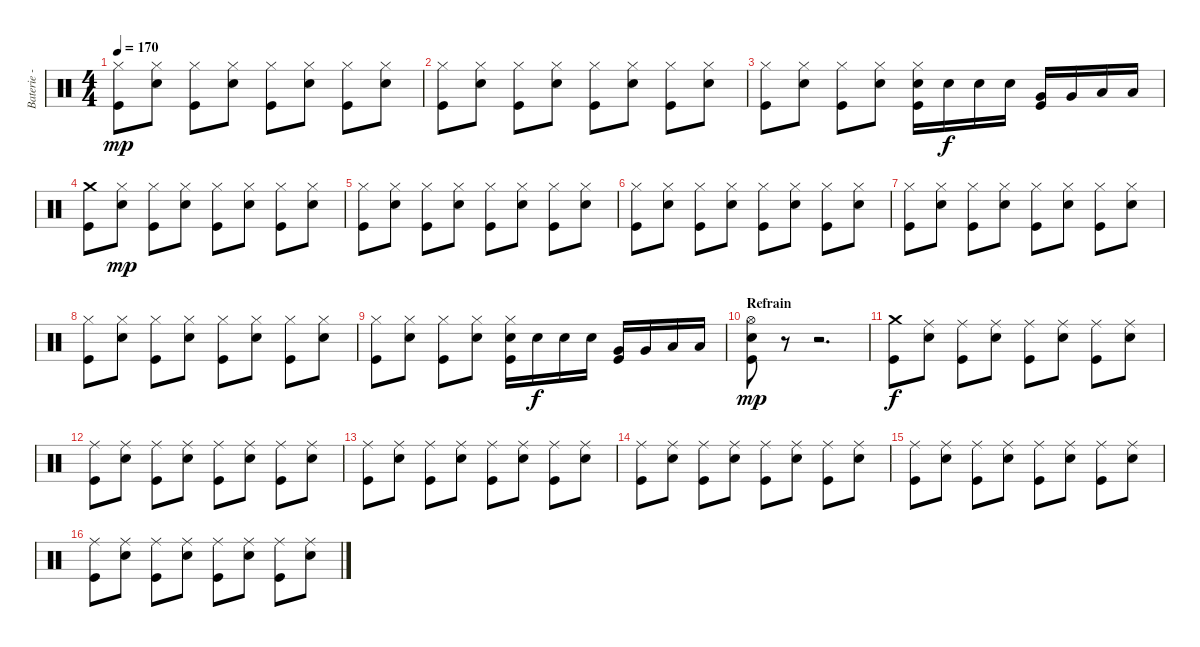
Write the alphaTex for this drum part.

\track ("Baterie - Guillaume" "Baterie - ") {instrument percussion}
\staff {score}
\articulation defaults
\ts (4 4)
\tempo 170
\clef neutral
\ks c
("Hi-Hat (closed)" "Kick (hit)").8{dy mp} ("Hi-Hat (closed)" "Electric Snare (hit)").8 ("Hi-Hat (closed)" "Kick (hit)").8 ("Hi-Hat (closed)" "Electric Snare (hit)").8 ("Hi-Hat (closed)" "Kick (hit)").8 ("Hi-Hat (closed)" "Electric Snare (hit)").8 ("Hi-Hat (closed)" "Kick (hit)").8 ("Hi-Hat (closed)" "Electric Snare (hit)").8 |
("Hi-Hat (closed)" "Kick (hit)").8 ("Hi-Hat (closed)" "Electric Snare (hit)").8 ("Hi-Hat (closed)" "Kick (hit)").8 ("Hi-Hat (closed)" "Electric Snare (hit)").8 ("Hi-Hat (closed)" "Kick (hit)").8 ("Hi-Hat (closed)" "Electric Snare (hit)").8 ("Hi-Hat (closed)" "Kick (hit)").8 ("Hi-Hat (closed)" "Electric Snare (hit)").8 |
("Hi-Hat (closed)" "Kick (hit)").8 ("Hi-Hat (closed)" "Electric Snare (hit)").8 ("Hi-Hat (closed)" "Kick (hit)").8 ("Hi-Hat (closed)" "Electric Snare (hit)").8 ("Hi-Hat (closed)" "Electric Snare (hit)" "Kick (hit)").16 "Electric Snare (hit)".16{dy f} "Electric Snare (hit)".16 "Electric Snare (hit)".16 ("Very Low Tom (hit)" "Kick (hit)").16 "Very Low Tom (hit)".16 "Low Tom (hit)".16 "Low Tom (hit)".16 |
("Crash medium (hit)" "Kick (hit)").8 ("Hi-Hat (closed)" "Electric Snare (hit)").8{dy mp} ("Hi-Hat (closed)" "Kick (hit)").8 ("Hi-Hat (closed)" "Electric Snare (hit)").8 ("Hi-Hat (closed)" "Kick (hit)").8 ("Hi-Hat (closed)" "Electric Snare (hit)").8 ("Hi-Hat (closed)" "Kick (hit)").8 ("Hi-Hat (closed)" "Electric Snare (hit)").8 |
("Hi-Hat (closed)" "Kick (hit)").8 ("Hi-Hat (closed)" "Electric Snare (hit)").8 ("Hi-Hat (closed)" "Kick (hit)").8 ("Hi-Hat (closed)" "Electric Snare (hit)").8 ("Hi-Hat (closed)" "Kick (hit)").8 ("Hi-Hat (closed)" "Electric Snare (hit)").8 ("Hi-Hat (closed)" "Kick (hit)").8 ("Hi-Hat (closed)" "Electric Snare (hit)").8 |
("Hi-Hat (closed)" "Kick (hit)").8 ("Hi-Hat (closed)" "Electric Snare (hit)").8 ("Hi-Hat (closed)" "Kick (hit)").8 ("Hi-Hat (closed)" "Electric Snare (hit)").8 ("Hi-Hat (closed)" "Kick (hit)").8 ("Hi-Hat (closed)" "Electric Snare (hit)").8 ("Hi-Hat (closed)" "Kick (hit)").8 ("Hi-Hat (closed)" "Electric Snare (hit)").8 |
("Hi-Hat (closed)" "Kick (hit)").8 ("Hi-Hat (closed)" "Electric Snare (hit)").8 ("Hi-Hat (closed)" "Kick (hit)").8 ("Hi-Hat (closed)" "Electric Snare (hit)").8 ("Hi-Hat (closed)" "Kick (hit)").8 ("Hi-Hat (closed)" "Electric Snare (hit)").8 ("Hi-Hat (closed)" "Kick (hit)").8 ("Hi-Hat (closed)" "Electric Snare (hit)").8 |
("Hi-Hat (closed)" "Kick (hit)").8 ("Hi-Hat (closed)" "Electric Snare (hit)").8 ("Hi-Hat (closed)" "Kick (hit)").8 ("Hi-Hat (closed)" "Electric Snare (hit)").8 ("Hi-Hat (closed)" "Kick (hit)").8 ("Hi-Hat (closed)" "Electric Snare (hit)").8 ("Hi-Hat (closed)" "Kick (hit)").8 ("Hi-Hat (closed)" "Electric Snare (hit)").8 |
("Hi-Hat (closed)" "Kick (hit)").8 ("Hi-Hat (closed)" "Electric Snare (hit)").8 ("Hi-Hat (closed)" "Kick (hit)").8 ("Hi-Hat (closed)" "Electric Snare (hit)").8 ("Hi-Hat (closed)" "Electric Snare (hit)" "Kick (hit)").16 "Electric Snare (hit)".16{dy f} "Electric Snare (hit)".16 "Electric Snare (hit)".16 ("Very Low Tom (hit)" "Kick (hit)").16 "Very Low Tom (hit)".16 "Low Tom (hit)".16 "Low Tom (hit)".16 |
\section ("" "Refrain")
("Hi-Hat (open)" "Electric Snare (hit)" "Kick (hit)").8{dy mp} r.8 r.2{d} |
("Crash medium (hit)" "Kick (hit)").8{dy f} ("Ride (middle)" "Electric Snare (hit)").8 ("Ride (middle)" "Kick (hit)").8 ("Ride (middle)" "Electric Snare (hit)").8 ("Ride (middle)" "Kick (hit)").8 ("Ride (middle)" "Electric Snare (hit)").8 ("Ride (middle)" "Kick (hit)").8 ("Ride (middle)" "Electric Snare (hit)").8 |
("Ride (middle)" "Kick (hit)").8 ("Ride (middle)" "Electric Snare (hit)").8 ("Ride (middle)" "Kick (hit)").8 ("Ride (middle)" "Electric Snare (hit)").8 ("Ride (middle)" "Kick (hit)").8 ("Ride (middle)" "Electric Snare (hit)").8 ("Ride (middle)" "Kick (hit)").8 ("Ride (middle)" "Electric Snare (hit)").8 |
("Ride (middle)" "Kick (hit)").8 ("Ride (middle)" "Electric Snare (hit)").8 ("Ride (middle)" "Kick (hit)").8 ("Ride (middle)" "Electric Snare (hit)").8 ("Ride (middle)" "Kick (hit)").8 ("Ride (middle)" "Electric Snare (hit)").8 ("Ride (middle)" "Kick (hit)").8 ("Ride (middle)" "Electric Snare (hit)").8 |
("Ride (middle)" "Kick (hit)").8 ("Ride (middle)" "Electric Snare (hit)").8 ("Ride (middle)" "Kick (hit)").8 ("Ride (middle)" "Electric Snare (hit)").8 ("Ride (middle)" "Kick (hit)").8 ("Ride (middle)" "Electric Snare (hit)").8 ("Ride (middle)" "Kick (hit)").8 ("Ride (middle)" "Electric Snare (hit)").8 |
("Ride (middle)" "Kick (hit)").8 ("Ride (middle)" "Electric Snare (hit)").8 ("Ride (middle)" "Kick (hit)").8 ("Ride (middle)" "Electric Snare (hit)").8 ("Ride (middle)" "Kick (hit)").8 ("Ride (middle)" "Electric Snare (hit)").8 ("Ride (middle)" "Kick (hit)").8 ("Ride (middle)" "Electric Snare (hit)").8 |
("Ride (middle)" "Kick (hit)").8 ("Ride (middle)" "Electric Snare (hit)").8 ("Ride (middle)" "Kick (hit)").8 ("Ride (middle)" "Electric Snare (hit)").8 ("Ride (middle)" "Kick (hit)").8 ("Ride (middle)" "Electric Snare (hit)").8 ("Ride (middle)" "Kick (hit)").8 ("Ride (middle)" "Electric Snare (hit)").8
